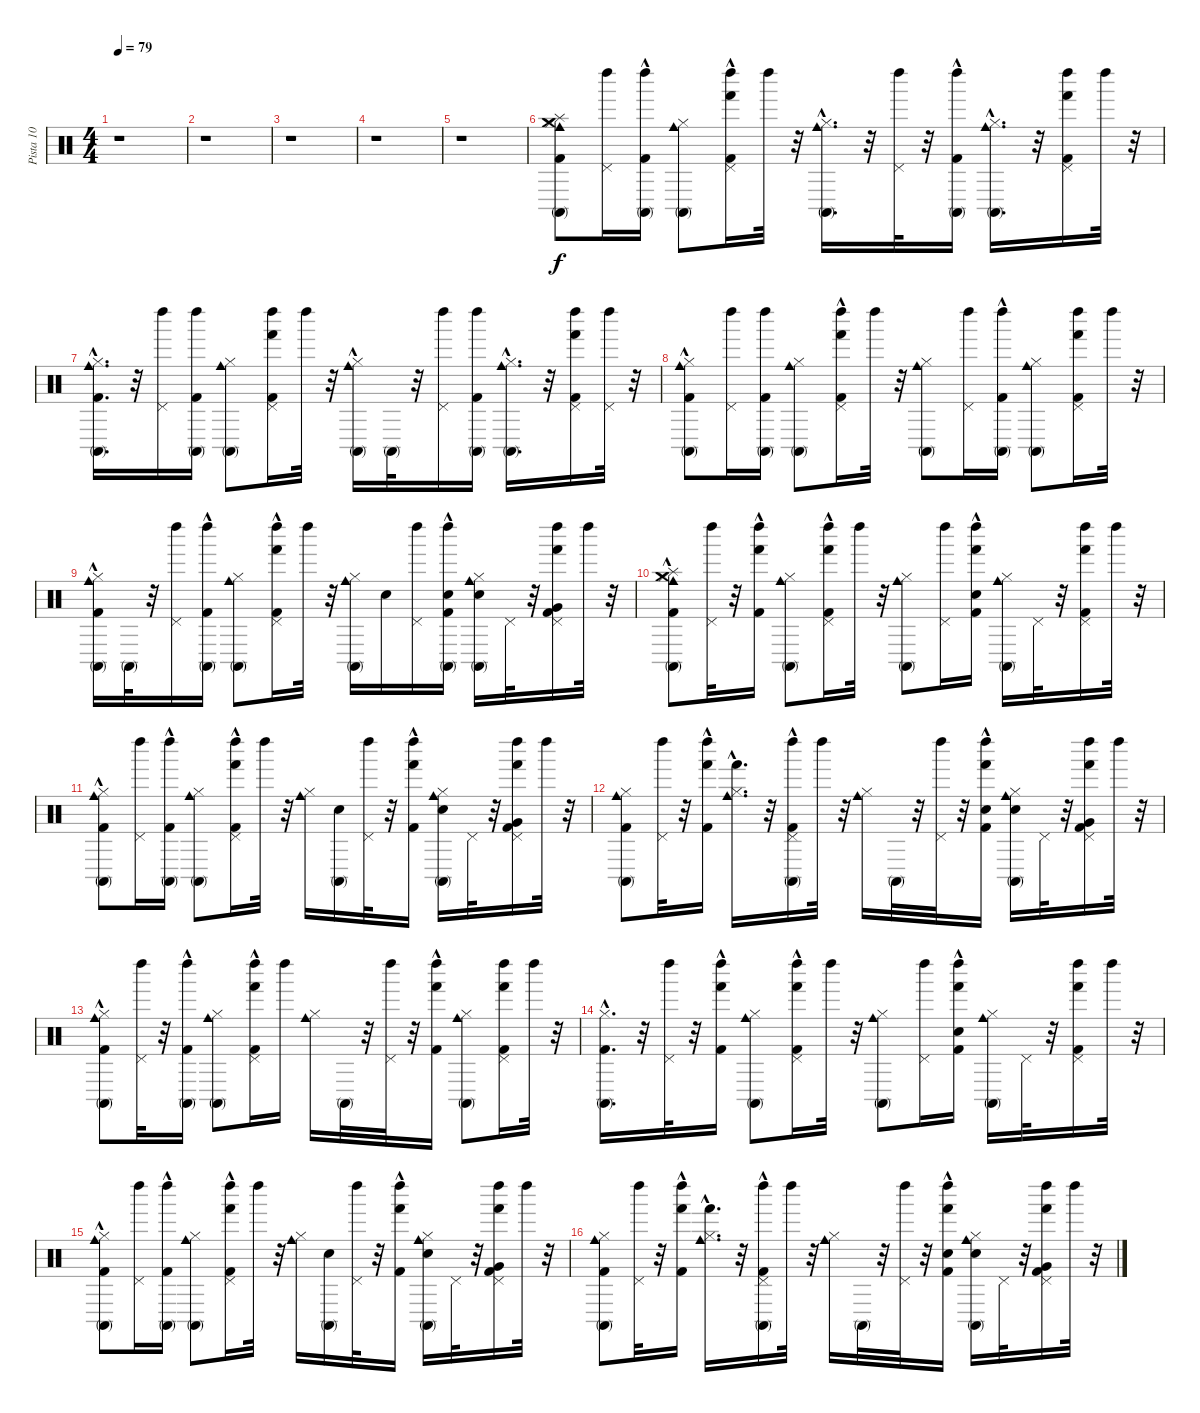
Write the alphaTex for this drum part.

\track ("Pista 10" "Pista 10") {instrument percussion}
\staff {score}
\articulation defaults
\ts (4 4)
\tempo 79
\clef neutral
\ks c
r.1{dy f} |
r.1 |
r.1 |
r.1 |
r.1 |
("Crash medium (hit)" "Splash (hit)" "Kick (hit) 2" "Hi-Hat (closed)" "Conga high (mute)" "Cowbell medium (hit)").8 ("Pedal Hi-Hat (hit)" "Left Maraca (hit)").16 ("Kick (hit) 2"{hac} "Conga high (mute)" "Left Maraca (hit)").16 ("Hi-Hat (closed)" "Conga high (mute)" "Cowbell medium (hit)").8 ("Kick (hit) 2"{hac} "Pedal Hi-Hat (hit)" "Hand (hit)" "Left Maraca (hit)").16 "Left Maraca (hit)".32 r.32 ("Hi-Hat (closed)" "Conga high (mute)" "Cowbell medium (hit)"{hac}).16{d} r.32 ("Pedal Hi-Hat (hit)" "Left Maraca (hit)").32 r.32 ("Kick (hit) 2"{hac} "Conga high (mute)" "Left Maraca (hit)").16 ("Hi-Hat (closed)" "Conga high (mute)" "Cowbell medium (hit)"{hac}).16{d} r.32 ("Kick (hit) 2" "Pedal Hi-Hat (hit)" "Hand (hit)" "Left Maraca (hit)").16 "Left Maraca (hit)".32 r.32 |
("Kick (hit) 2"{hac} "Hi-Hat (closed)" "Conga high (mute)" "Cowbell medium (hit)"{hac}).16{d} r.32 ("Pedal Hi-Hat (hit)" "Left Maraca (hit)").16 ("Kick (hit) 2" "Conga high (mute)" "Left Maraca (hit)").16 ("Hi-Hat (closed)" "Conga high (mute)" "Cowbell medium (hit)").8 ("Kick (hit) 2" "Pedal Hi-Hat (hit)" "Hand (hit)" "Left Maraca (hit)").16 "Left Maraca (hit)".32 r.32 ("Hi-Hat (closed)" "Conga high (mute)" "Cowbell medium (hit)"{hac}).16 "Conga high (mute)".32 r.32 ("Pedal Hi-Hat (hit)" "Left Maraca (hit)").16 ("Kick (hit) 2" "Conga high (mute)" "Left Maraca (hit)").16 ("Hi-Hat (closed)" "Conga high (mute)" "Cowbell medium (hit)"{hac}).16{d} r.32 ("Kick (hit) 2" "Pedal Hi-Hat (hit)" "Hand (hit)" "Left Maraca (hit)").16 ("Pedal Hi-Hat (hit)" "Left Maraca (hit)").32 r.32 |
("Kick (hit) 2"{hac} "Hi-Hat (closed)" "Conga high (mute)" "Cowbell medium (hit)").8 ("Pedal Hi-Hat (hit)" "Left Maraca (hit)").16 ("Kick (hit) 2" "Conga high (mute)" "Left Maraca (hit)").16 ("Hi-Hat (closed)" "Conga high (mute)" "Cowbell medium (hit)").8 ("Kick (hit) 2"{hac} "Pedal Hi-Hat (hit)" "Hand (hit)" "Left Maraca (hit)").16 "Left Maraca (hit)".32 r.32 ("Hi-Hat (closed)" "Conga high (mute)" "Cowbell medium (hit)").8 ("Pedal Hi-Hat (hit)" "Left Maraca (hit)").16 ("Kick (hit) 2"{hac} "Conga high (mute)" "Left Maraca (hit)").16 ("Hi-Hat (closed)" "Conga high (mute)" "Cowbell medium (hit)").8 ("Kick (hit) 2" "Pedal Hi-Hat (hit)" "Hand (hit)" "Left Maraca (hit)").16 "Left Maraca (hit)".32 r.32 |
("Kick (hit) 2"{hac} "Hi-Hat (closed)" "Conga high (mute)" "Cowbell medium (hit)").16 "Conga high (mute)".32 r.32 ("Pedal Hi-Hat (hit)" "Left Maraca (hit)").16 ("Kick (hit) 2"{hac} "Conga high (mute)" "Left Maraca (hit)").16 ("Hi-Hat (closed)" "Conga high (mute)" "Cowbell medium (hit)").8 ("Kick (hit) 2"{hac} "Pedal Hi-Hat (hit)" "Hand (hit)" "Left Maraca (hit)").16 "Left Maraca (hit)".32 r.32 ("Hi-Hat (closed)" "Conga high (mute)" "Cowbell medium (hit)").16 "Snare (hit) 2".16 ("Pedal Hi-Hat (hit)" "Left Maraca (hit)").16 ("Snare (hit) 2" "Kick (hit) 2"{hac} "Conga high (mute)" "Left Maraca (hit)").16 ("Snare (hit) 2" "Hi-Hat (closed)" "Conga high (mute)" "Cowbell medium (hit)").16 "Pedal Hi-Hat (hit)".32 r.32 ("Very Low Tom (hit)" "Kick (hit) 2" "Pedal Hi-Hat (hit)" "Hand (hit)" "Left Maraca (hit)").16 "Left Maraca (hit)".32 r.32 |
("Splash (hit)" "Kick (hit) 2"{hac} "Hi-Hat (closed)"{hac} "Conga high (mute)" "Cowbell medium (hit)" "Crash medium (hit)").8 ("Pedal Hi-Hat (hit)" "Left Maraca (hit)").32 r.32 ("Kick (hit) 2"{hac} "Hand (hit)" "Left Maraca (hit)").16 ("Hi-Hat (closed)" "Conga high (mute)" "Cowbell medium (hit)").8 ("Kick (hit) 2"{hac} "Pedal Hi-Hat (hit)" "Hand (hit)" "Left Maraca (hit)").16 "Left Maraca (hit)".32 r.32 ("Hi-Hat (closed)" "Conga high (mute)" "Cowbell medium (hit)").8 ("Pedal Hi-Hat (hit)" "Left Maraca (hit)").16 ("Snare (hit) 2" "Kick (hit) 2"{hac} "Hand (hit)" "Left Maraca (hit)").16 ("Hi-Hat (closed)" "Conga high (mute)" "Cowbell medium (hit)").16 "Pedal Hi-Hat (hit)".32 r.32 ("Kick (hit) 2" "Pedal Hi-Hat (hit)" "Hand (hit)" "Left Maraca (hit)").16 "Left Maraca (hit)".32 r.32 |
("Kick (hit) 2"{hac} "Hi-Hat (closed)" "Conga high (mute)" "Cowbell medium (hit)").8 ("Pedal Hi-Hat (hit)" "Left Maraca (hit)").16 ("Kick (hit) 2"{hac} "Conga high (mute)" "Left Maraca (hit)").16 ("Hi-Hat (closed)" "Conga high (mute)" "Cowbell medium (hit)").8 ("Kick (hit) 2"{hac} "Pedal Hi-Hat (hit)" "Hand (hit)" "Left Maraca (hit)").16 "Left Maraca (hit)".32 r.32 ("Hi-Hat (closed)" "Cowbell medium (hit)").16 ("Snare (hit) 2" "Conga high (mute)").16 ("Pedal Hi-Hat (hit)" "Left Maraca (hit)").32 r.32 ("Kick (hit) 2"{hac} "Hand (hit)" "Left Maraca (hit)").16 ("Snare (hit) 2" "Hi-Hat (closed)" "Conga high (mute)" "Cowbell medium (hit)").16 "Pedal Hi-Hat (hit)".32 r.32 ("Very Low Tom (hit)" "Kick (hit) 2" "Pedal Hi-Hat (hit)" "Hand (hit)" "Left Maraca (hit)").16 "Left Maraca (hit)".32 r.32 |
("Kick (hit) 2" "Hi-Hat (closed)" "Conga high (mute)" "Cowbell medium (hit)").8 ("Pedal Hi-Hat (hit)" "Left Maraca (hit)").32 r.32 ("Kick (hit) 2"{hac} "Hand (hit)" "Left Maraca (hit)").16 ("Hi-Hat (closed)" "Hand (hit)" "Cowbell medium (hit)"{hac}).16{d} r.32 ("Kick (hit) 2"{hac} "Pedal Hi-Hat (hit)" "Conga high (mute)" "Left Maraca (hit)").16 "Left Maraca (hit)".32 r.32 ("Hi-Hat (closed)" "Cowbell medium (hit)").16 "Conga high (mute)".32 r.32 ("Pedal Hi-Hat (hit)" "Left Maraca (hit)").32 r.32 ("Snare (hit) 2" "Kick (hit) 2"{hac} "Hand (hit)" "Left Maraca (hit)").16 ("Snare (hit) 2" "Hi-Hat (closed)" "Conga high (mute)" "Cowbell medium (hit)").16 "Pedal Hi-Hat (hit)".32 r.32 ("Very Low Tom (hit)" "Kick (hit) 2" "Pedal Hi-Hat (hit)" "Hand (hit)" "Left Maraca (hit)").16 "Left Maraca (hit)".32 r.32 |
("Kick (hit) 2"{hac} "Hi-Hat (closed)" "Conga high (mute)" "Cowbell medium (hit)").8 ("Pedal Hi-Hat (hit)" "Left Maraca (hit)").32 r.32 ("Kick (hit) 2"{hac} "Conga high (mute)" "Left Maraca (hit)").16 ("Hi-Hat (closed)" "Conga high (mute)" "Cowbell medium (hit)").8 ("Kick (hit) 2"{hac} "Pedal Hi-Hat (hit)" "Hand (hit)" "Left Maraca (hit)").16 "Left Maraca (hit)".16 ("Hi-Hat (closed)" "Cowbell medium (hit)").16 "Conga high (mute)".32 r.32 ("Pedal Hi-Hat (hit)" "Left Maraca (hit)").32 r.32 ("Kick (hit) 2"{hac} "Hand (hit)" "Left Maraca (hit)").16 ("Hi-Hat (closed)" "Conga high (mute)" "Cowbell medium (hit)").8 ("Kick (hit) 2" "Pedal Hi-Hat (hit)" "Hand (hit)" "Left Maraca (hit)").16 "Left Maraca (hit)".32 r.32 |
("Kick (hit) 2"{hac} "Hi-Hat (closed)"{hac} "Conga high (mute)").16{d} r.32 ("Left Maraca (hit)" "Pedal Hi-Hat (hit)").32 r.32 ("Left Maraca (hit)" "Kick (hit) 2"{hac} "Hand (hit)").16 ("Cowbell medium (hit)" "Hi-Hat (closed)" "Conga high (mute)").8 ("Left Maraca (hit)" "Kick (hit) 2"{hac} "Pedal Hi-Hat (hit)" "Hand (hit)").16 "Left Maraca (hit)".32 r.32 ("Cowbell medium (hit)" "Hi-Hat (closed)" "Conga high (mute)").8 ("Left Maraca (hit)" "Pedal Hi-Hat (hit)").16 ("Left Maraca (hit)" "Kick (hit) 2"{hac} "Hand (hit)" "Snare (hit) 2").16 ("Cowbell medium (hit)" "Hi-Hat (closed)" "Conga high (mute)").16 "Pedal Hi-Hat (hit)".32 r.32 ("Left Maraca (hit)" "Kick (hit) 2" "Pedal Hi-Hat (hit)" "Hand (hit)").16 "Left Maraca (hit)".32 r.32 |
("Cowbell medium (hit)" "Kick (hit) 2"{hac} "Hi-Hat (closed)" "Conga high (mute)").8 ("Left Maraca (hit)" "Pedal Hi-Hat (hit)").16 ("Left Maraca (hit)" "Kick (hit) 2"{hac} "Conga high (mute)").16 ("Cowbell medium (hit)" "Hi-Hat (closed)" "Conga high (mute)").8 ("Left Maraca (hit)" "Kick (hit) 2"{hac} "Pedal Hi-Hat (hit)" "Hand (hit)").16 "Left Maraca (hit)".32 r.32 ("Cowbell medium (hit)" "Hi-Hat (closed)").16 ("Conga high (mute)" "Snare (hit) 2").16 ("Left Maraca (hit)" "Pedal Hi-Hat (hit)").32 r.32 ("Left Maraca (hit)" "Kick (hit) 2"{hac} "Hand (hit)").16 ("Cowbell medium (hit)" "Hi-Hat (closed)" "Conga high (mute)" "Snare (hit) 2").16 "Pedal Hi-Hat (hit)".32 r.32 ("Left Maraca (hit)" "Kick (hit) 2" "Pedal Hi-Hat (hit)" "Hand (hit)" "Very Low Tom (hit)").16 "Left Maraca (hit)".32 r.32 |
("Cowbell medium (hit)" "Kick (hit) 2" "Hi-Hat (closed)" "Conga high (mute)").8 ("Left Maraca (hit)" "Pedal Hi-Hat (hit)").32 r.32 ("Left Maraca (hit)" "Kick (hit) 2"{hac} "Hand (hit)").16 ("Cowbell medium (hit)"{hac} "Hi-Hat (closed)" "Hand (hit)").16{d} r.32 ("Left Maraca (hit)" "Kick (hit) 2"{hac} "Pedal Hi-Hat (hit)" "Conga high (mute)").16 "Left Maraca (hit)".32 r.32 ("Cowbell medium (hit)" "Hi-Hat (closed)").16 "Conga high (mute)".32 r.32 ("Left Maraca (hit)" "Pedal Hi-Hat (hit)").32 r.32 ("Left Maraca (hit)" "Kick (hit) 2"{hac} "Hand (hit)" "Snare (hit) 2").16 ("Cowbell medium (hit)" "Hi-Hat (closed)" "Conga high (mute)" "Snare (hit) 2").16 "Pedal Hi-Hat (hit)".32 r.32 ("Left Maraca (hit)" "Kick (hit) 2" "Pedal Hi-Hat (hit)" "Hand (hit)" "Very Low Tom (hit)").16 "Left Maraca (hit)".32 r.32
